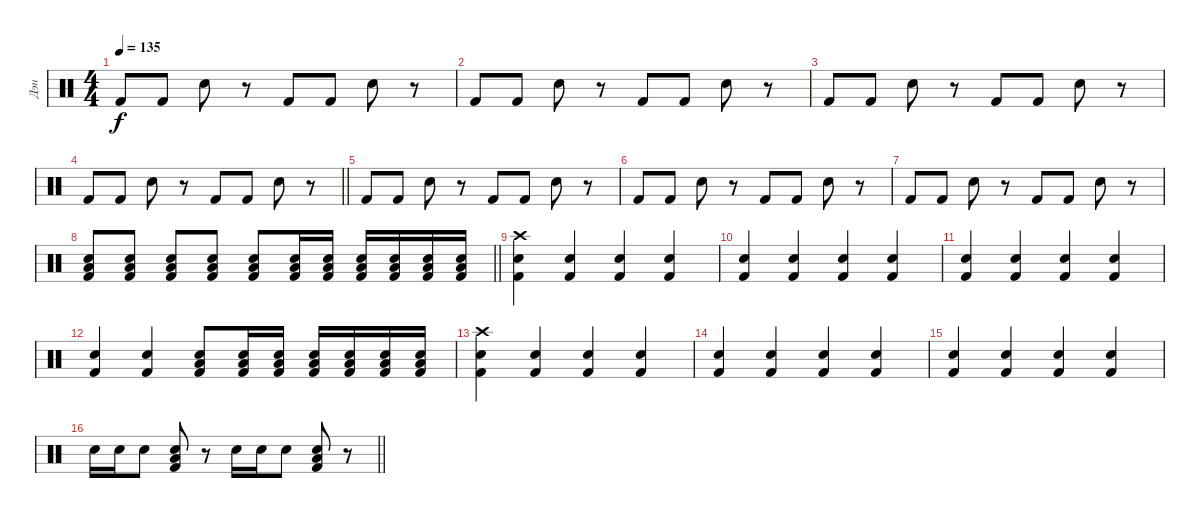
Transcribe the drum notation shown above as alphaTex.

\track ("Дэн" "Дэн") {instrument percussion}
\staff {score}
\articulation defaults
\ts (4 4)
\tempo 135
\clef neutral
\ks c "Kick (hit) 2".8{dy f} "Kick (hit) 2".8 "Snare (hit) 2".8
r.8 "Kick (hit) 2".8 "Kick (hit) 2".8 "Snare (hit) 2".8 r.8 |
"Kick (hit) 2".8 "Kick (hit) 2".8 "Snare (hit) 2".8 r.8 "Kick (hit) 2".8 "Kick (hit) 2".8 "Snare (hit) 2".8 r.8 |
"Kick (hit) 2".8 "Kick (hit) 2".8 "Snare (hit) 2".8 r.8 "Kick (hit) 2".8 "Kick (hit) 2".8 "Snare (hit) 2".8 r.8 |
\barLineRight lightlight "Kick (hit) 2".8 "Kick (hit) 2".8 "Snare (hit) 2".8
r.8 "Kick (hit) 2".8 "Kick (hit) 2".8 "Snare (hit) 2".8 r.8 |
"Kick (hit) 2".8 "Kick (hit) 2".8 "Snare (hit) 2".8 r.8 "Kick (hit) 2".8 "Kick (hit) 2".8 "Snare (hit) 2".8 r.8 |
"Kick (hit) 2".8 "Kick (hit) 2".8 "Snare (hit) 2".8 r.8 "Kick (hit) 2".8 "Kick (hit) 2".8 "Snare (hit) 2".8 r.8 |
"Kick (hit) 2".8 "Kick (hit) 2".8 "Snare (hit) 2".8 r.8 "Kick (hit) 2".8 "Kick (hit) 2".8 "Snare (hit) 2".8 r.8 |
\barLineRight lightlight
("Snare (hit) 2" "Low Tom (hit)" "Kick (hit) 2").8 ("Snare (hit) 2" "Low Tom (hit)" "Kick (hit) 2").8 ("Snare (hit) 2" "Low Tom (hit)" "Kick (hit) 2").8 ("Snare (hit) 2" "Low Tom (hit)" "Kick (hit) 2").8 ("Snare (hit) 2" "Low Tom (hit)" "Kick (hit) 2").8 ("Snare (hit) 2" "Low Tom (hit)" "Kick (hit) 2").16 ("Snare (hit) 2" "Low Tom (hit)" "Kick (hit) 2").16 ("Snare (hit) 2" "Low Tom (hit)" "Kick (hit) 2").16 ("Snare (hit) 2" "Low Tom (hit)" "Kick (hit) 2").16 ("Snare (hit) 2" "Low Tom (hit)" "Kick (hit) 2").16 ("Snare (hit) 2" "Low Tom (hit)" "Kick (hit) 2").16 |
("Snare (hit) 2" "Kick (hit) 2" "Crash high (hit)").4 ("Snare (hit) 2" "Kick (hit) 2").4 ("Snare (hit) 2" "Kick (hit) 2").4 ("Snare (hit) 2" "Kick (hit) 2").4 |
("Snare (hit) 2" "Kick (hit) 2").4 ("Snare (hit) 2" "Kick (hit) 2").4 ("Snare (hit) 2" "Kick (hit) 2").4 ("Snare (hit) 2" "Kick (hit) 2").4 |
("Snare (hit) 2" "Kick (hit) 2").4 ("Snare (hit) 2" "Kick (hit) 2").4 ("Snare (hit) 2" "Kick (hit) 2").4 ("Snare (hit) 2" "Kick (hit) 2").4 |
("Snare (hit) 2" "Kick (hit) 2").4 ("Snare (hit) 2" "Kick (hit) 2").4 ("Snare (hit) 2" "Low Tom (hit)" "Kick (hit) 2").8 ("Snare (hit) 2" "Low Tom (hit)" "Kick (hit) 2").16 ("Snare (hit) 2" "Low Tom (hit)" "Kick (hit) 2").16 ("Snare (hit) 2" "Low Tom (hit)" "Kick (hit) 2").16 ("Snare (hit) 2" "Low Tom (hit)" "Kick (hit) 2").16 ("Snare (hit) 2" "Low Tom (hit)" "Kick (hit) 2").16 ("Snare (hit) 2" "Low Tom (hit)" "Kick (hit) 2").16 |
("Snare (hit) 2" "Kick (hit) 2" "Crash high (hit)").4 ("Snare (hit) 2" "Kick (hit) 2").4 ("Snare (hit) 2" "Kick (hit) 2").4 ("Snare (hit) 2" "Kick (hit) 2").4 |
("Snare (hit) 2" "Kick (hit) 2").4 ("Snare (hit) 2" "Kick (hit) 2").4 ("Snare (hit) 2" "Kick (hit) 2").4 ("Snare (hit) 2" "Kick (hit) 2").4 |
("Snare (hit) 2" "Kick (hit) 2").4 ("Snare (hit) 2" "Kick (hit) 2").4 ("Snare (hit) 2" "Kick (hit) 2").4 ("Snare (hit) 2" "Kick (hit) 2").4 |
\barLineRight lightlight "Snare (hit) 2".16 "Snare (hit) 2".16 "Snare (hit) 2".8
("Snare (hit) 2" "Low Tom (hit)" "Kick (hit) 2").8 r.8 "Snare (hit) 2".16 "Snare (hit) 2".16 "Snare (hit) 2".8 ("Snare (hit) 2" "Low Tom (hit)" "Kick (hit) 2").8 r.8
